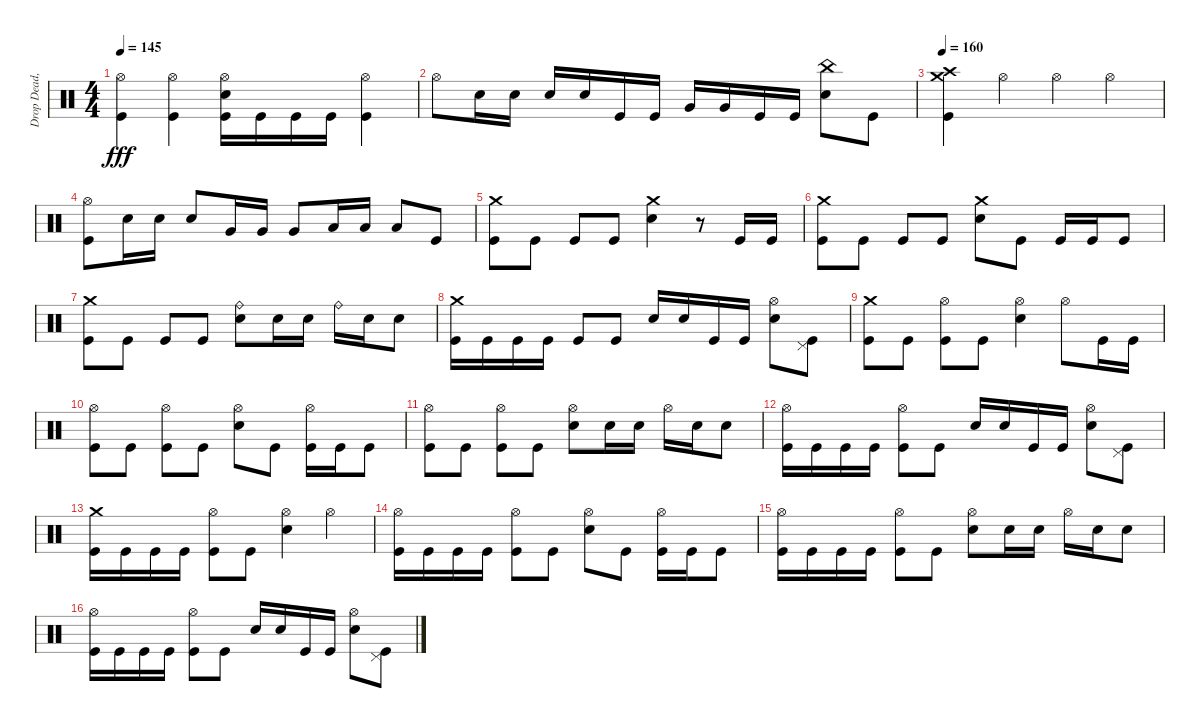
\track ("Drop Dead, Johnny" "Drop Dead,") {instrument percussion}
\staff {score}
\articulation defaults
\ts (4 4)
\tempo 145
\clef neutral
\ks c
("Hi-Hat (open)" "Kick (hit)").4{dy fff} ("Hi-Hat (open)" "Kick (hit)").4 ("Hi-Hat (open)" "Electric Snare (hit)" "Kick (hit)").16 "Kick (hit)".16 "Kick (hit)".16 "Kick (hit)".16 ("Hi-Hat (open)" "Kick (hit)").4 |
"Hi-Hat (open)".8 "Electric Snare (hit)".16 "Electric Snare (hit)".16 "Electric Snare (hit)".16 "Electric Snare (hit)".16 "Kick (hit)".16 "Kick (hit)".16 "Very Low Tom (hit)".16 "Very Low Tom (hit)".16 "Kick (hit)".16 "Kick (hit)".16 ("China (hit)" "Electric Snare (hit)").8 "Kick (hit)".8 |
\tempo 160
("Crash high (hit)" "Crash medium (hit)" "Kick (hit)").4 "Hi-Hat (open)".4 "Hi-Hat (open)".4 "Hi-Hat (open)".4 |
("Hi-Hat (open)" "Kick (hit)").8 "Electric Snare (hit)".16 "Electric Snare (hit)".16 "Electric Snare (hit)".8 "Very Low Tom (hit)".16 "Very Low Tom (hit)".16 "Very Low Tom (hit)".8 "Low Floor Tom (hit)".16 "Low Floor Tom (hit)".16 "Low Floor Tom (hit)".8 "Kick (hit)".8 |
("Crash medium (hit)" "Kick (hit)").8 "Kick (hit)".8 "Kick (hit)".8 "Kick (hit)".8 ("Crash medium (hit)" "Electric Snare (hit)").4 r.8 "Kick (hit)".16 "Kick (hit)".16 |
("Crash medium (hit)" "Kick (hit)").8 "Kick (hit)".8 "Kick (hit)".8 "Kick (hit)".8 ("Crash medium (hit)" "Electric Snare (hit)").8 "Kick (hit)".8 "Kick (hit)".16 "Kick (hit)".16 "Kick (hit)".8 |
("Crash medium (hit)" "Kick (hit)").8 "Kick (hit)".8 "Kick (hit)".8 "Kick (hit)".8 ("Ride (bell)" "Electric Snare (hit)").8 "Electric Snare (hit)".16 "Electric Snare (hit)".16 "Ride (bell)".16 "Electric Snare (hit)".16 "Electric Snare (hit)".8 |
("Crash medium (hit)" "Kick (hit)").16 "Kick (hit)".16 "Kick (hit)".16 "Kick (hit)".16 "Kick (hit)".8 "Kick (hit)".8 "Electric Snare (hit)".16 "Electric Snare (hit)".16 "Kick (hit)".16 "Kick (hit)".16 ("Hi-Hat (open)" "Electric Snare (hit)").8 ("Pedal Hi-Hat (hit)" "Kick (hit)").8 |
("Crash medium (hit)" "Kick (hit)").8 "Kick (hit)".8 ("Hi-Hat (open)" "Kick (hit)").8 "Kick (hit)".8 ("Hi-Hat (open)" "Electric Snare (hit)").4 "Hi-Hat (open)".8 "Kick (hit)".16 "Kick (hit)".16 |
("Hi-Hat (open)" "Kick (hit)").8 "Kick (hit)".8 ("Hi-Hat (open)" "Kick (hit)").8 "Kick (hit)".8 ("Hi-Hat (open)" "Electric Snare (hit)").8 "Kick (hit)".8 ("Hi-Hat (open)" "Kick (hit)").16 "Kick (hit)".16 "Kick (hit)".8 |
("Hi-Hat (open)" "Kick (hit)").8 "Kick (hit)".8 ("Hi-Hat (open)" "Kick (hit)").8 "Kick (hit)".8 ("Hi-Hat (open)" "Electric Snare (hit)").8 "Electric Snare (hit)".16 "Electric Snare (hit)".16 "Hi-Hat (open)".16 "Electric Snare (hit)".16 "Electric Snare (hit)".8 |
("Hi-Hat (open)" "Kick (hit)").16 "Kick (hit)".16 "Kick (hit)".16 "Kick (hit)".16 ("Hi-Hat (open)" "Kick (hit)").8 "Kick (hit)".8 "Electric Snare (hit)".16 "Electric Snare (hit)".16 "Kick (hit)".16 "Kick (hit)".16 ("Hi-Hat (open)" "Electric Snare (hit)").8 ("Pedal Hi-Hat (hit)" "Kick (hit)").8 |
("Crash medium (hit)" "Kick (hit)").16 "Kick (hit)".16 "Kick (hit)".16 "Kick (hit)".16 ("Hi-Hat (open)" "Kick (hit)").8 "Kick (hit)".8 ("Hi-Hat (open)" "Electric Snare (hit)").4 "Hi-Hat (open)".4 |
("Hi-Hat (open)" "Kick (hit)").16 "Kick (hit)".16 "Kick (hit)".16 "Kick (hit)".16 ("Hi-Hat (open)" "Kick (hit)").8 "Kick (hit)".8 ("Hi-Hat (open)" "Electric Snare (hit)").8 "Kick (hit)".8 ("Hi-Hat (open)" "Kick (hit)").16 "Kick (hit)".16 "Kick (hit)".8 |
("Hi-Hat (open)" "Kick (hit)").16 "Kick (hit)".16 "Kick (hit)".16 "Kick (hit)".16 ("Hi-Hat (open)" "Kick (hit)").8 "Kick (hit)".8 ("Hi-Hat (open)" "Electric Snare (hit)").8 "Electric Snare (hit)".16 "Electric Snare (hit)".16 "Hi-Hat (open)".16 "Electric Snare (hit)".16 "Electric Snare (hit)".8 |
("Hi-Hat (open)" "Kick (hit)").16 "Kick (hit)".16 "Kick (hit)".16 "Kick (hit)".16 ("Hi-Hat (open)" "Kick (hit)").8 "Kick (hit)".8 "Electric Snare (hit)".16 "Electric Snare (hit)".16 "Kick (hit)".16 "Kick (hit)".16 ("Hi-Hat (open)" "Electric Snare (hit)").8 ("Pedal Hi-Hat (hit)" "Kick (hit)").8
